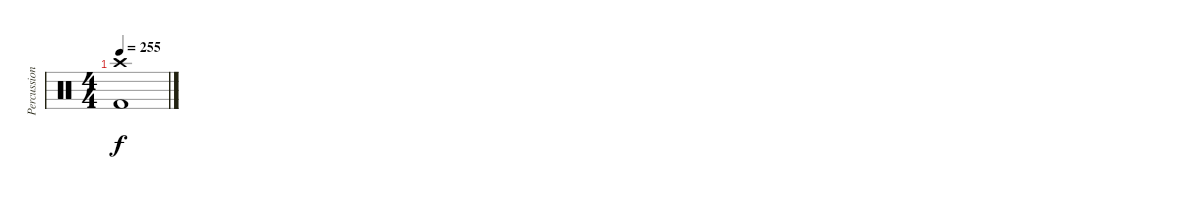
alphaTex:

\track ("Percussion" "Percussion") {instrument percussion}
\staff {score}
\articulation defaults
\ts (4 4)
\tempo 255
\clef neutral
\ks c
("Crash high (hit)" "Kick (hit) 2").1{dy f}
